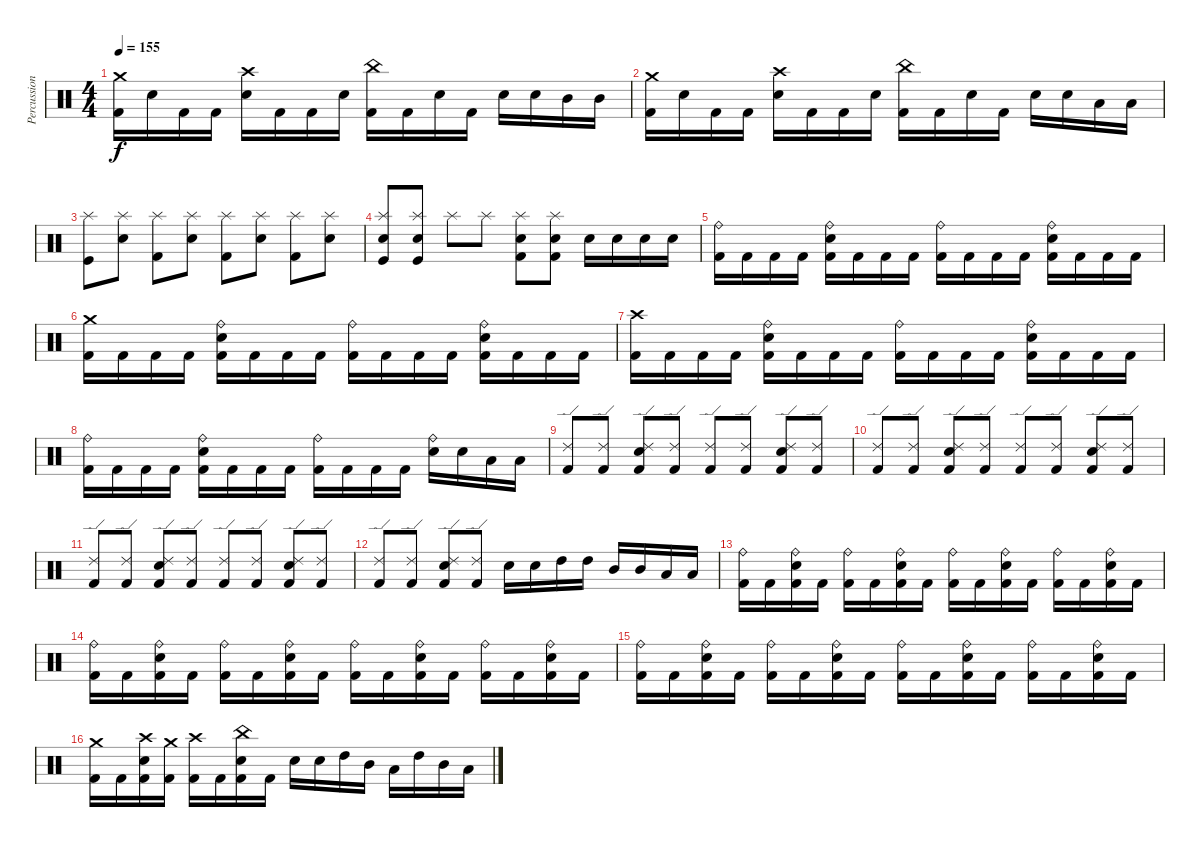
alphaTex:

\track ("Percussions" "Percussion") {instrument percussion}
\staff {score}
\articulation defaults
\ts (4 4)
\tempo 155
\clef neutral
\ks c
("Crash medium (hit)" "Kick (hit) 2").16{dy f} "Electric Snare (hit)".16 "Kick (hit) 2".16 "Kick (hit) 2".16 ("Crash high (hit)" "Electric Snare (hit)").16 "Kick (hit) 2".16 "Kick (hit) 2".16 "Electric Snare (hit)".16 ("China (hit)" "Kick (hit) 2").16 "Kick (hit) 2".16 "Electric Snare (hit)".16 "Kick (hit) 2".16 "Electric Snare (hit)".16 "Electric Snare (hit)".16 "Mid Tom (hit)".16 "Mid Tom (hit)".16 |
("Crash medium (hit)" "Kick (hit) 2").16 "Electric Snare (hit)".16 "Kick (hit) 2".16 "Kick (hit) 2".16 ("Crash high (hit)" "Electric Snare (hit)").16 "Kick (hit) 2".16 "Kick (hit) 2".16 "Electric Snare (hit)".16 ("China (hit)" "Kick (hit) 2").16 "Kick (hit) 2".16 "Electric Snare (hit)".16 "Kick (hit) 2".16 "Electric Snare (hit)".16 "Electric Snare (hit)".16 "Low Tom (hit)".16 "Low Tom (hit)".16 |
("Splash (hit)" "Kick (hit)").8 ("Splash (hit)" "Electric Snare (hit)").8 ("Splash (hit)" "Kick (hit) 2").8 ("Splash (hit)" "Electric Snare (hit)").8 ("Splash (hit)" "Kick (hit) 2").8 ("Splash (hit)" "Electric Snare (hit)").8 ("Splash (hit)" "Kick (hit) 2").8 ("Splash (hit)" "Electric Snare (hit)").8 |
("Splash (hit)" "Electric Snare (hit)" "Kick (hit)").8 ("Splash (hit)" "Electric Snare (hit)" "Kick (hit)").8 "Splash (hit)".8 "Splash (hit)".8 ("Splash (hit)" "Electric Snare (hit)" "Kick (hit) 2").8 ("Splash (hit)" "Electric Snare (hit)" "Kick (hit) 2").8 "Electric Snare (hit)".16 "Electric Snare (hit)".16 "Electric Snare (hit)".16 "Electric Snare (hit)".16 |
("Ride (bell)" "Kick (hit) 2").16 "Kick (hit) 2".16 "Kick (hit) 2".16 "Kick (hit) 2".16 ("Ride (bell)" "Electric Snare (hit)" "Kick (hit) 2").16 "Kick (hit) 2".16 "Kick (hit) 2".16 "Kick (hit) 2".16 ("Ride (bell)" "Kick (hit) 2").16 "Kick (hit) 2".16 "Kick (hit) 2".16 "Kick (hit) 2".16 ("Ride (bell)" "Electric Snare (hit)" "Kick (hit) 2").16 "Kick (hit) 2".16 "Kick (hit) 2".16 "Kick (hit) 2".16 |
("Crash medium (hit)" "Kick (hit) 2").16 "Kick (hit) 2".16 "Kick (hit) 2".16 "Kick (hit) 2".16 ("Ride (bell)" "Electric Snare (hit)" "Kick (hit) 2").16 "Kick (hit) 2".16 "Kick (hit) 2".16 "Kick (hit) 2".16 ("Ride (bell)" "Kick (hit) 2").16 "Kick (hit) 2".16 "Kick (hit) 2".16 "Kick (hit) 2".16 ("Ride (bell)" "Electric Snare (hit)" "Kick (hit) 2").16 "Kick (hit) 2".16 "Kick (hit) 2".16 "Kick (hit) 2".16 |
("Crash high (hit)" "Kick (hit) 2").16 "Kick (hit) 2".16 "Kick (hit) 2".16 "Kick (hit) 2".16 ("Ride (bell)" "Electric Snare (hit)" "Kick (hit) 2").16 "Kick (hit) 2".16 "Kick (hit) 2".16 "Kick (hit) 2".16 ("Ride (bell)" "Kick (hit) 2").16 "Kick (hit) 2".16 "Kick (hit) 2".16 "Kick (hit) 2".16 ("Ride (bell)" "Electric Snare (hit)" "Kick (hit) 2").16 "Kick (hit) 2".16 "Kick (hit) 2".16 "Kick (hit) 2".16 |
("Ride (bell)" "Kick (hit) 2").16 "Kick (hit) 2".16 "Kick (hit) 2".16 "Kick (hit) 2".16 ("Ride (bell)" "Electric Snare (hit)" "Kick (hit) 2").16 "Kick (hit) 2".16 "Kick (hit) 2".16 "Kick (hit) 2".16 ("Ride (bell)" "Kick (hit) 2").16 "Kick (hit) 2".16 "Kick (hit) 2".16 "Kick (hit) 2".16 ("Ride (bell)" "Electric Snare (hit)").16 "Electric Snare (hit)".16 "Low Tom (hit)".16 "Low Tom (hit)".16 |
("Ride (edge) 2" "Kick (hit) 2").8 ("Ride (edge) 2" "Kick (hit) 2").8 ("Ride (edge) 2" "Electric Snare (hit)" "Kick (hit) 2").8 ("Ride (edge) 2" "Kick (hit) 2").8 ("Ride (edge) 2" "Kick (hit) 2").8 ("Ride (edge) 2" "Kick (hit) 2").8 ("Ride (edge) 2" "Electric Snare (hit)" "Kick (hit) 2").8 ("Ride (edge) 2" "Kick (hit) 2").8 |
("Ride (edge) 2" "Kick (hit) 2").8 ("Ride (edge) 2" "Kick (hit) 2").8 ("Ride (edge) 2" "Electric Snare (hit)" "Kick (hit) 2").8 ("Ride (edge) 2" "Kick (hit) 2").8 ("Ride (edge) 2" "Kick (hit) 2").8 ("Ride (edge) 2" "Kick (hit) 2").8 ("Ride (edge) 2" "Electric Snare (hit)" "Kick (hit) 2").8 ("Ride (edge) 2" "Kick (hit) 2").8 |
("Ride (edge) 2" "Kick (hit) 2").8 ("Ride (edge) 2" "Kick (hit) 2").8 ("Ride (edge) 2" "Electric Snare (hit)" "Kick (hit) 2").8 ("Ride (edge) 2" "Kick (hit) 2").8 ("Ride (edge) 2" "Kick (hit) 2").8 ("Ride (edge) 2" "Kick (hit) 2").8 ("Ride (edge) 2" "Electric Snare (hit)" "Kick (hit) 2").8 ("Ride (edge) 2" "Kick (hit) 2").8 |
("Ride (edge) 2" "Kick (hit) 2").8 ("Ride (edge) 2" "Kick (hit) 2").8 ("Ride (edge) 2" "Electric Snare (hit)" "Kick (hit) 2").8 ("Ride (edge) 2" "Kick (hit) 2").8 "Electric Snare (hit)".16 "Electric Snare (hit)".16 "High Tom (hit)".16 "High Tom (hit)".16 "Mid Tom (hit)".16 "Mid Tom (hit)".16 "Low Tom (hit)".16 "Low Tom (hit)".16 |
("Ride (bell)" "Kick (hit) 2").16 "Kick (hit) 2".16 ("Ride (bell)" "Electric Snare (hit)" "Kick (hit) 2").16 "Kick (hit) 2".16 ("Ride (bell)" "Kick (hit) 2").16 "Kick (hit) 2".16 ("Ride (bell)" "Electric Snare (hit)" "Kick (hit) 2").16 "Kick (hit) 2".16 ("Ride (bell)" "Kick (hit) 2").16 "Kick (hit) 2".16 ("Ride (bell)" "Electric Snare (hit)" "Kick (hit) 2").16 "Kick (hit) 2".16 ("Ride (bell)" "Kick (hit) 2").16 "Kick (hit) 2".16 ("Ride (bell)" "Electric Snare (hit)" "Kick (hit) 2").16 "Kick (hit) 2".16 |
("Ride (bell)" "Kick (hit) 2").16 "Kick (hit) 2".16 ("Ride (bell)" "Electric Snare (hit)" "Kick (hit) 2").16 "Kick (hit) 2".16 ("Ride (bell)" "Kick (hit) 2").16 "Kick (hit) 2".16 ("Ride (bell)" "Electric Snare (hit)" "Kick (hit) 2").16 "Kick (hit) 2".16 ("Ride (bell)" "Kick (hit) 2").16 "Kick (hit) 2".16 ("Ride (bell)" "Electric Snare (hit)" "Kick (hit) 2").16 "Kick (hit) 2".16 ("Ride (bell)" "Kick (hit) 2").16 "Kick (hit) 2".16 ("Ride (bell)" "Electric Snare (hit)" "Kick (hit) 2").16 "Kick (hit) 2".16 |
("Ride (bell)" "Kick (hit) 2").16 "Kick (hit) 2".16 ("Ride (bell)" "Electric Snare (hit)" "Kick (hit) 2").16 "Kick (hit) 2".16 ("Ride (bell)" "Kick (hit) 2").16 "Kick (hit) 2".16 ("Ride (bell)" "Electric Snare (hit)" "Kick (hit) 2").16 "Kick (hit) 2".16 ("Ride (bell)" "Kick (hit) 2").16 "Kick (hit) 2".16 ("Ride (bell)" "Electric Snare (hit)" "Kick (hit) 2").16 "Kick (hit) 2".16 ("Ride (bell)" "Kick (hit) 2").16 "Kick (hit) 2".16 ("Ride (bell)" "Electric Snare (hit)" "Kick (hit) 2").16 "Kick (hit) 2".16 |
("Crash medium (hit)" "Kick (hit) 2").16 "Kick (hit) 2".16 ("Crash high (hit)" "Electric Snare (hit)" "Kick (hit) 2").16 ("Crash medium (hit)" "Kick (hit) 2").16 ("Crash high (hit)" "Kick (hit) 2").16 "Kick (hit) 2".16 ("China (hit)" "Electric Snare (hit)" "Kick (hit) 2").16 "Kick (hit) 2".16 "Electric Snare (hit)".16 "Electric Snare (hit)".16 "High Tom (hit)".16 "Mid Tom (hit)".16 "Low Tom (hit)".16 "High Tom (hit)".16 "Mid Tom (hit)".16 "Low Tom (hit)".16
